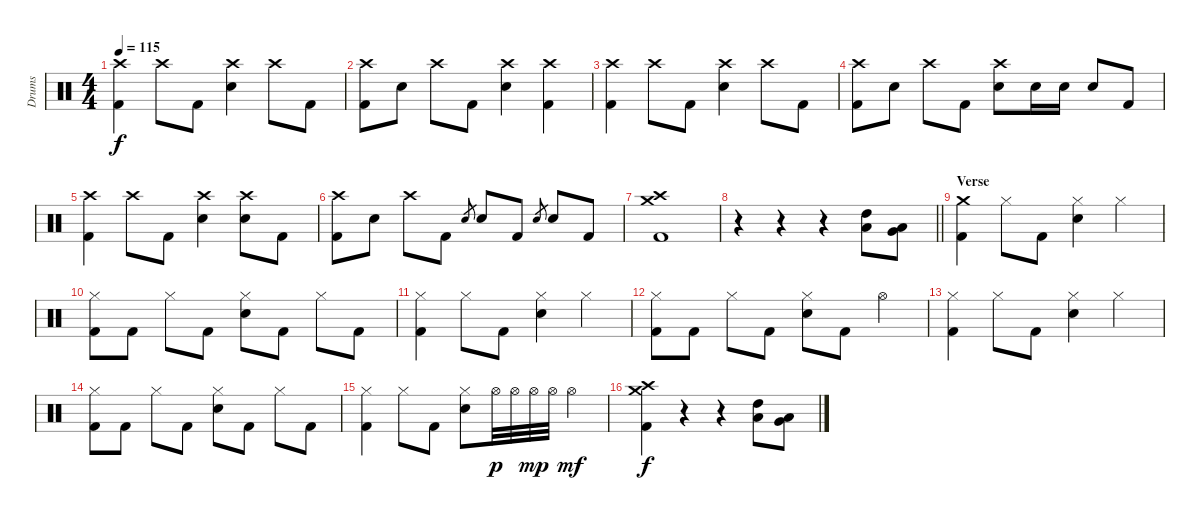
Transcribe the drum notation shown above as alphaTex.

\track ("Drums" "Drums") {instrument percussion}
\staff {score}
\articulation defaults
\ts (4 4)
\tempo 115
\clef neutral
\ks c
("Crash high (hit)" "Kick (hit) 2").4{dy f} "Crash high (hit)".8 "Kick (hit) 2".8 ("Crash high (hit)" "Snare (hit) 2").4 "Crash high (hit)".8 "Kick (hit) 2".8 |
("Crash high (hit)" "Kick (hit) 2").8 "Snare (hit) 2".8 "Crash high (hit)".8 "Kick (hit) 2".8 ("Crash high (hit)" "Snare (hit) 2").4 ("Crash high (hit)" "Kick (hit) 2").4 |
("Crash high (hit)" "Kick (hit) 2").4 "Crash high (hit)".8 "Kick (hit) 2".8 ("Crash high (hit)" "Snare (hit) 2").4 "Crash high (hit)".8 "Kick (hit) 2".8 |
("Crash high (hit)" "Kick (hit) 2").8 "Snare (hit) 2".8 "Crash high (hit)".8 "Kick (hit) 2".8 ("Crash high (hit)" "Snare (hit) 2").8 "Snare (hit) 2".16 "Snare (hit) 2".16 "Snare (hit) 2".8 "Kick (hit) 2".8 |
("Crash high (hit)" "Kick (hit) 2").4 "Crash high (hit)".8 "Kick (hit) 2".8 ("Crash high (hit)" "Snare (hit) 2").4 ("Crash high (hit)" "Snare (hit) 2").8 "Kick (hit) 2".8 |
("Crash high (hit)" "Kick (hit) 2").8 "Snare (hit) 2".8 "Crash high (hit)".8 "Kick (hit) 2".8 "Snare (hit) 2".8{gr} "Snare (hit) 2".8 "Kick (hit) 2".8 "Snare (hit) 2".8{gr} "Snare (hit) 2".8 "Kick (hit) 2".8 |
("Crash medium (hit)" "Crash high (hit)" "Kick (hit) 2").1 |
\barLineRight lightlight
r.4 r.4 r.4 ("Low Tom (hit)" "High Tom (hit)").8 ("Low Tom (hit)" "Very Low Tom (hit)").8 |
\section ("" "Verse")
("Crash medium (hit)" "Kick (hit) 2").4 "Hi-Hat (closed)".8 "Kick (hit) 2".8 ("Hi-Hat (closed)" "Snare (hit) 2").4 "Hi-Hat (closed)".4 |
("Hi-Hat (closed)" "Kick (hit) 2").8 "Kick (hit) 2".8 "Hi-Hat (closed)".8 "Kick (hit) 2".8 ("Hi-Hat (closed)" "Snare (hit) 2").8 "Kick (hit) 2".8 "Hi-Hat (closed)".8 "Kick (hit) 2".8 |
("Hi-Hat (closed)" "Kick (hit) 2").4 "Hi-Hat (closed)".8 "Kick (hit) 2".8 ("Hi-Hat (closed)" "Snare (hit) 2").4 "Hi-Hat (closed)".4 |
("Hi-Hat (closed)" "Kick (hit) 2").8 "Kick (hit) 2".8 "Hi-Hat (closed)".8 "Kick (hit) 2".8 ("Hi-Hat (closed)" "Snare (hit) 2").8 "Kick (hit) 2".8 "Hi-Hat (open)".4 |
("Hi-Hat (closed)" "Kick (hit) 2").4 "Hi-Hat (closed)".8 "Kick (hit) 2".8 ("Hi-Hat (closed)" "Snare (hit) 2").4 "Hi-Hat (closed)".4 |
("Hi-Hat (closed)" "Kick (hit) 2").8 "Kick (hit) 2".8 "Hi-Hat (closed)".8 "Kick (hit) 2".8 ("Hi-Hat (closed)" "Snare (hit) 2").8 "Kick (hit) 2".8 "Hi-Hat (closed)".8 "Kick (hit) 2".8 |
("Hi-Hat (closed)" "Kick (hit) 2").4 "Hi-Hat (closed)".8 "Kick (hit) 2".8 ("Hi-Hat (closed)" "Snare (hit) 2").8 "Hi-Hat (open)".32{dy p} "Hi-Hat (open)".32 "Hi-Hat (open)".32{dy mp} "Hi-Hat (open)".32 "Hi-Hat (open)".4{dy mf} |
("Crash medium (hit)" "Crash high (hit)" "Kick (hit) 2").4{dy f} r.4 r.4 ("Low Tom (hit)" "High Tom (hit)").8 ("Low Tom (hit)" "Very Low Tom (hit)").8
